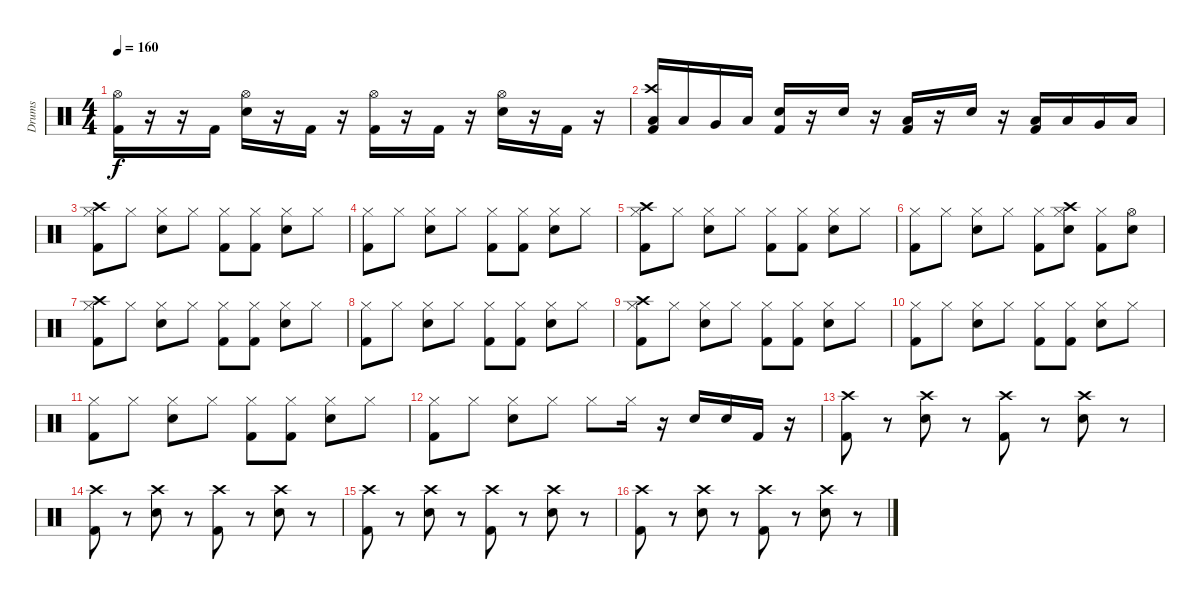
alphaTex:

\track ("Drums" "Drums") {instrument percussion}
\staff {score}
\articulation defaults
\ts (4 4)
\tempo 160
\clef neutral
\ks c
("Hi-Hat (open)" "Kick (hit) 2").16{dy f} r.16 r.16 "Kick (hit) 2".16 ("Hi-Hat (open)" "Snare (hit) 2").16 r.16 "Kick (hit) 2".16 r.16 ("Hi-Hat (open)" "Kick (hit) 2").16 r.16 "Kick (hit) 2".16 r.16 ("Hi-Hat (open)" "Snare (hit) 2").16 r.16 "Kick (hit) 2".16 r.16 |
("Crash high (hit)" "Low Tom (hit)" "Kick (hit) 2").16 "Low Tom (hit)".16 "Very Low Tom (hit)".16 "Low Floor Tom (hit)".16 ("Snare (hit) 2" "Kick (hit) 2").16 r.16 "Snare (hit) 2".16 r.16 ("Low Tom (hit)" "Kick (hit) 2").16 r.16 "Snare (hit) 2".16 r.16 ("Low Tom (hit)" "Kick (hit) 2").16 "Low Tom (hit)".16 "Very Low Tom (hit)".16 "Low Floor Tom (hit)".16 |
("Crash high (hit)" "Hi-Hat (closed)" "Kick (hit) 2").8 "Hi-Hat (closed)".8 ("Hi-Hat (closed)" "Snare (hit) 2").8 "Hi-Hat (closed)".8 ("Hi-Hat (closed)" "Kick (hit) 2").8 ("Hi-Hat (closed)" "Kick (hit) 2").8 ("Hi-Hat (closed)" "Snare (hit) 2").8 "Hi-Hat (closed)".8 |
("Hi-Hat (closed)" "Kick (hit) 2").8 "Hi-Hat (closed)".8 ("Hi-Hat (closed)" "Snare (hit) 2").8 "Hi-Hat (closed)".8 ("Hi-Hat (closed)" "Kick (hit) 2").8 ("Hi-Hat (closed)" "Kick (hit) 2").8 ("Hi-Hat (closed)" "Snare (hit) 2").8 "Hi-Hat (closed)".8 |
("Crash high (hit)" "Hi-Hat (closed)" "Kick (hit) 2").8 "Hi-Hat (closed)".8 ("Hi-Hat (closed)" "Snare (hit) 2").8 "Hi-Hat (closed)".8 ("Hi-Hat (closed)" "Kick (hit) 2").8 ("Hi-Hat (closed)" "Kick (hit) 2").8 ("Hi-Hat (closed)" "Snare (hit) 2").8 "Hi-Hat (closed)".8 |
("Hi-Hat (closed)" "Kick (hit) 2").8 "Hi-Hat (closed)".8 ("Hi-Hat (closed)" "Snare (hit) 2").8 "Hi-Hat (closed)".8 ("Hi-Hat (closed)" "Kick (hit) 2").8 ("Crash high (hit)" "Hi-Hat (closed)" "Snare (hit) 2").8 ("Hi-Hat (closed)" "Kick (hit) 2").8 ("Hi-Hat (open)" "Snare (hit) 2").8 |
("Crash high (hit)" "Hi-Hat (closed)" "Kick (hit) 2").8 "Hi-Hat (closed)".8 ("Hi-Hat (closed)" "Snare (hit) 2").8 "Hi-Hat (closed)".8 ("Hi-Hat (closed)" "Kick (hit) 2").8 ("Hi-Hat (closed)" "Kick (hit) 2").8 ("Hi-Hat (closed)" "Snare (hit) 2").8 "Hi-Hat (closed)".8 |
("Hi-Hat (closed)" "Kick (hit) 2").8 "Hi-Hat (closed)".8 ("Hi-Hat (closed)" "Snare (hit) 2").8 "Hi-Hat (closed)".8 ("Hi-Hat (closed)" "Kick (hit) 2").8 ("Hi-Hat (closed)" "Kick (hit) 2").8 ("Hi-Hat (closed)" "Snare (hit) 2").8 "Hi-Hat (closed)".8 |
("Crash high (hit)" "Hi-Hat (closed)" "Kick (hit) 2").8 "Hi-Hat (closed)".8 ("Hi-Hat (closed)" "Snare (hit) 2").8 "Hi-Hat (closed)".8 ("Hi-Hat (closed)" "Kick (hit) 2").8 ("Hi-Hat (closed)" "Kick (hit) 2").8 ("Hi-Hat (closed)" "Snare (hit) 2").8 "Hi-Hat (closed)".8 |
("Hi-Hat (closed)" "Kick (hit) 2").8 "Hi-Hat (closed)".8 ("Hi-Hat (closed)" "Snare (hit) 2").8 "Hi-Hat (closed)".8 ("Hi-Hat (closed)" "Kick (hit) 2").8 ("Hi-Hat (closed)" "Kick (hit) 2").8 ("Hi-Hat (closed)" "Snare (hit) 2").8 "Hi-Hat (closed)".8 |
("Hi-Hat (closed)" "Kick (hit) 2").8 "Hi-Hat (closed)".8 ("Hi-Hat (closed)" "Snare (hit) 2").8 "Hi-Hat (closed)".8 ("Hi-Hat (closed)" "Kick (hit) 2").8 ("Hi-Hat (closed)" "Kick (hit) 2").8 ("Hi-Hat (closed)" "Snare (hit) 2").8 "Hi-Hat (closed)".8 |
("Hi-Hat (closed)" "Kick (hit) 2").8 "Hi-Hat (closed)".8 ("Hi-Hat (closed)" "Snare (hit) 2").8 "Hi-Hat (closed)".8 "Hi-Hat (closed)".8 "Hi-Hat (closed)".16 r.16 "Snare (hit) 2".16 "Snare (hit) 2".16 "Kick (hit) 2".16 r.16 |
("Crash high (hit)" "Kick (hit) 2").8 r.8 ("Crash high (hit)" "Snare (hit) 2").8 r.8 ("Crash high (hit)" "Kick (hit) 2").8 r.8 ("Crash high (hit)" "Snare (hit) 2").8 r.8 |
("Crash high (hit)" "Kick (hit) 2").8 r.8 ("Crash high (hit)" "Snare (hit) 2").8 r.8 ("Crash high (hit)" "Kick (hit) 2").8 r.8 ("Crash high (hit)" "Snare (hit) 2").8 r.8 |
("Crash high (hit)" "Kick (hit) 2").8 r.8 ("Crash high (hit)" "Snare (hit) 2").8 r.8 ("Crash high (hit)" "Kick (hit) 2").8 r.8 ("Crash high (hit)" "Snare (hit) 2").8 r.8 |
("Crash high (hit)" "Kick (hit) 2").8 r.8 ("Crash high (hit)" "Snare (hit) 2").8 r.8 ("Crash high (hit)" "Kick (hit) 2").8 r.8 ("Crash high (hit)" "Snare (hit) 2").8 r.8
